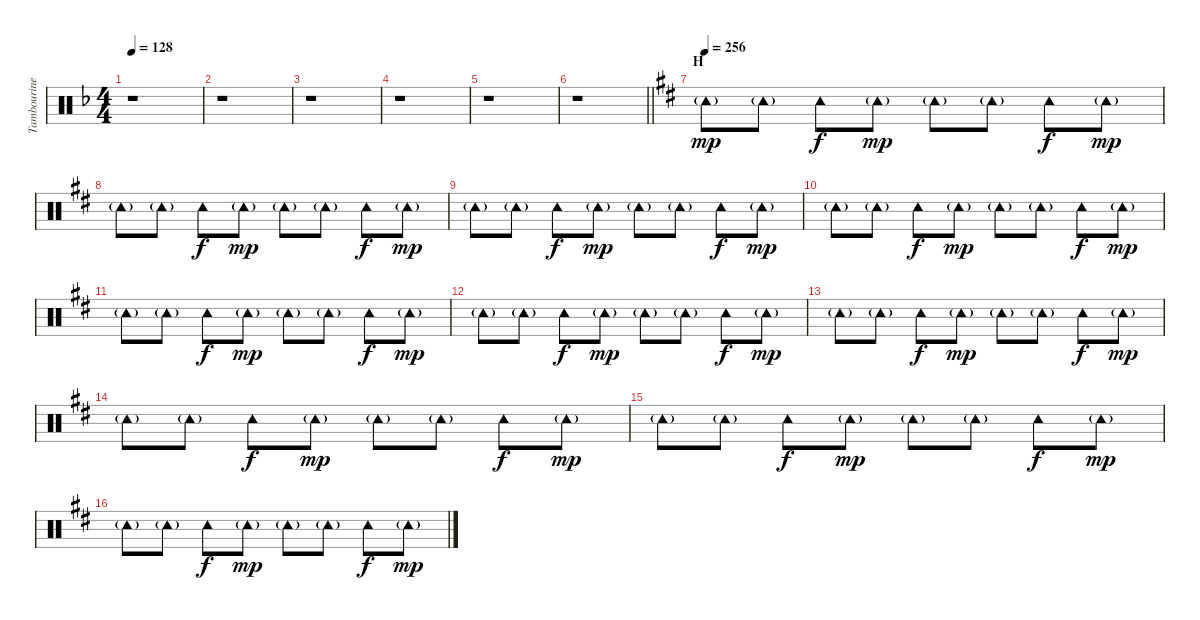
\track ("Tambourine" "Tambourine") {instrument percussion}
\staff {score}
\articulation defaults
\ts (4 4)
\tempo 128
\clef neutral
\ks f
r.1{dy mp} |
r.1 |
r.1 |
r.1 |
r.1 |
\barLineRight lightlight
r.1 |
\section ("" "H")
\tempo 256
\ks d "Tambourine (hit)"{g}.8 "Tambourine (hit)"{g}.8 "Tambourine (hit)".8{dy f} "Tambourine (hit)"{g}.8{dy mp} "Tambourine (hit)"{g}.8 "Tambourine (hit)"{g}.8 "Tambourine (hit)".8{dy f} "Tambourine (hit)"{g}.8{dy mp}
|
"Tambourine (hit)"{g}.8 "Tambourine (hit)"{g}.8 "Tambourine (hit)".8{dy f} "Tambourine (hit)"{g}.8{dy mp} "Tambourine (hit)"{g}.8 "Tambourine (hit)"{g}.8 "Tambourine (hit)".8{dy f} "Tambourine (hit)"{g}.8{dy mp} |
"Tambourine (hit)"{g}.8 "Tambourine (hit)"{g}.8 "Tambourine (hit)".8{dy f} "Tambourine (hit)"{g}.8{dy mp} "Tambourine (hit)"{g}.8 "Tambourine (hit)"{g}.8 "Tambourine (hit)".8{dy f} "Tambourine (hit)"{g}.8{dy mp} |
"Tambourine (hit)"{g}.8 "Tambourine (hit)"{g}.8 "Tambourine (hit)".8{dy f} "Tambourine (hit)"{g}.8{dy mp} "Tambourine (hit)"{g}.8 "Tambourine (hit)"{g}.8 "Tambourine (hit)".8{dy f} "Tambourine (hit)"{g}.8{dy mp} |
"Tambourine (hit)"{g}.8 "Tambourine (hit)"{g}.8 "Tambourine (hit)".8{dy f} "Tambourine (hit)"{g}.8{dy mp} "Tambourine (hit)"{g}.8 "Tambourine (hit)"{g}.8 "Tambourine (hit)".8{dy f} "Tambourine (hit)"{g}.8{dy mp} |
"Tambourine (hit)"{g}.8 "Tambourine (hit)"{g}.8 "Tambourine (hit)".8{dy f} "Tambourine (hit)"{g}.8{dy mp} "Tambourine (hit)"{g}.8 "Tambourine (hit)"{g}.8 "Tambourine (hit)".8{dy f} "Tambourine (hit)"{g}.8{dy mp} |
"Tambourine (hit)"{g}.8 "Tambourine (hit)"{g}.8 "Tambourine (hit)".8{dy f} "Tambourine (hit)"{g}.8{dy mp} "Tambourine (hit)"{g}.8 "Tambourine (hit)"{g}.8 "Tambourine (hit)".8{dy f} "Tambourine (hit)"{g}.8{dy mp} |
"Tambourine (hit)"{g}.8 "Tambourine (hit)"{g}.8 "Tambourine (hit)".8{dy f} "Tambourine (hit)"{g}.8{dy mp} "Tambourine (hit)"{g}.8 "Tambourine (hit)"{g}.8 "Tambourine (hit)".8{dy f} "Tambourine (hit)"{g}.8{dy mp} |
"Tambourine (hit)"{g}.8 "Tambourine (hit)"{g}.8 "Tambourine (hit)".8{dy f} "Tambourine (hit)"{g}.8{dy mp} "Tambourine (hit)"{g}.8 "Tambourine (hit)"{g}.8 "Tambourine (hit)".8{dy f} "Tambourine (hit)"{g}.8{dy mp} |
"Tambourine (hit)"{g}.8 "Tambourine (hit)"{g}.8 "Tambourine (hit)".8{dy f} "Tambourine (hit)"{g}.8{dy mp} "Tambourine (hit)"{g}.8 "Tambourine (hit)"{g}.8 "Tambourine (hit)".8{dy f} "Tambourine (hit)"{g}.8{dy mp}
